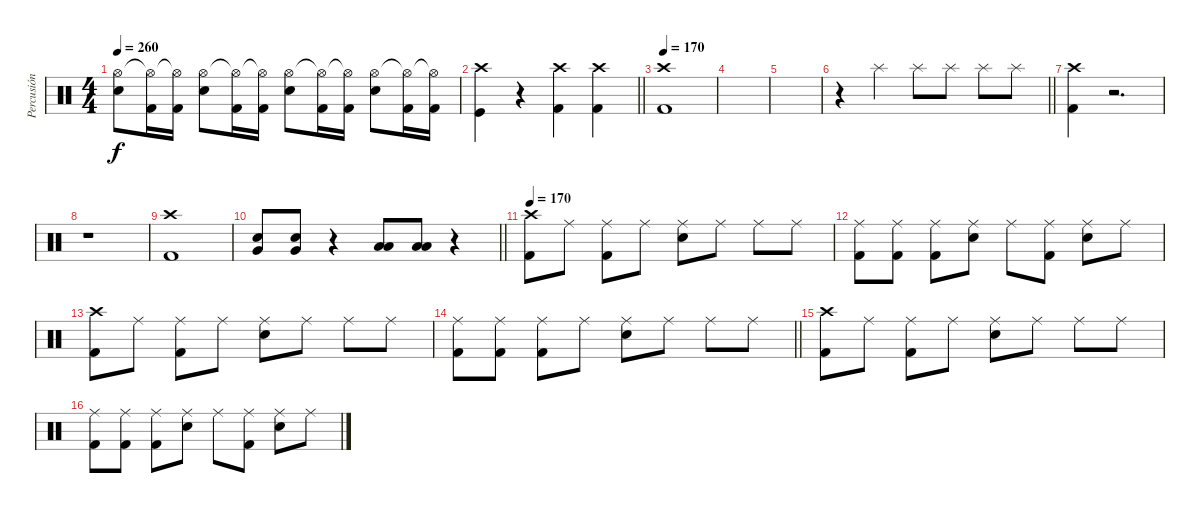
\track ("Percusión" "Percusión") {instrument percussion}
\staff {score}
\articulation defaults
\ts (4 4)
\tempo 260
\clef neutral
\ks c
("Snare (hit) 2" "Hi-Hat (open)").8{dy f} ("Kick (hit) 2" "Hi-Hat (open)"{t}).16 ("Kick (hit) 2" "Hi-Hat (open)"{t}).16 ("Snare (hit) 2" "Hi-Hat (open)").8 ("Kick (hit) 2" "Hi-Hat (open)"{t}).16 ("Kick (hit) 2" "Hi-Hat (open)"{t}).16 ("Snare (hit) 2" "Hi-Hat (open)").8 ("Kick (hit) 2" "Hi-Hat (open)"{t}).16 ("Kick (hit) 2" "Hi-Hat (open)"{t}).16 ("Snare (hit) 2" "Hi-Hat (open)").8 ("Kick (hit) 2" "Hi-Hat (open)"{t}).16 ("Kick (hit) 2" "Hi-Hat (open)"{t}).16 |
\barLineRight lightlight
("Crash high (hit)" "Kick (hit)").4 r.4 ("Kick (hit) 2" "Crash high (hit)").4 ("Kick (hit) 2" "Crash high (hit)").4 |
\tempo 220
\tempo 170
("Kick (hit) 2" "Crash high (hit)").1 |
|
|
\barLineRight lightlight
r.4 "Splash (hit)".4 "Splash (hit)".8 "Splash (hit)".8 "Splash (hit)".8 "Splash (hit)".8 |
("Kick (hit) 2" "Crash high (hit)").4 r.2{d} |
r.1 |
("Kick (hit) 2" "Crash high (hit)").1 |
\barLineRight lightlight
("Very Low Tom (hit)" "Snare (hit) 2").8 ("Very Low Tom (hit)" "Snare (hit) 2").8 r.4 ("Low Floor Tom (hit)" "Low Tom (hit)").8 ("Low Floor Tom (hit)" "Low Tom (hit)").8 r.4 |
\tempo 220
\tempo 170
("Kick (hit) 2" "Crash high (hit)").8 "Ride (middle)".8 ("Ride (middle)" "Kick (hit) 2").8 "Ride (middle)".8 ("Ride (middle)" "Snare (hit) 2").8 "Ride (middle)".8 "Ride (middle)".8 "Ride (middle)".8 |
("Ride (middle)" "Kick (hit) 2").8 ("Ride (middle)" "Kick (hit) 2").8 ("Ride (middle)" "Kick (hit) 2").8 ("Ride (middle)" "Snare (hit) 2").8 "Ride (middle)".8 ("Ride (middle)" "Kick (hit) 2").8 ("Ride (middle)" "Snare (hit) 2").8 "Ride (middle)".8 |
("Crash high (hit)" "Kick (hit) 2").8 "Ride (middle)".8 ("Ride (middle)" "Kick (hit) 2").8 "Ride (middle)".8 ("Ride (middle)" "Snare (hit) 2").8 "Ride (middle)".8 "Ride (middle)".8 "Ride (middle)".8 |
\barLineRight lightlight
("Ride (middle)" "Kick (hit) 2").8 ("Ride (middle)" "Kick (hit) 2").8 ("Ride (middle)" "Kick (hit) 2").8 "Ride (middle)".8 ("Ride (middle)" "Snare (hit) 2").8 "Ride (middle)".8 "Ride (middle)".8 "Ride (middle)".8 |
("Kick (hit) 2" "Crash high (hit)").8 "Ride (middle)".8 ("Ride (middle)" "Kick (hit) 2").8 "Ride (middle)".8 ("Ride (middle)" "Snare (hit) 2").8 "Ride (middle)".8 "Ride (middle)".8 "Ride (middle)".8 |
("Ride (middle)" "Kick (hit) 2").8 ("Ride (middle)" "Kick (hit) 2").8 ("Ride (middle)" "Kick (hit) 2").8 ("Ride (middle)" "Snare (hit) 2").8 "Ride (middle)".8 ("Ride (middle)" "Kick (hit) 2").8 ("Ride (middle)" "Snare (hit) 2").8 "Ride (middle)".8
